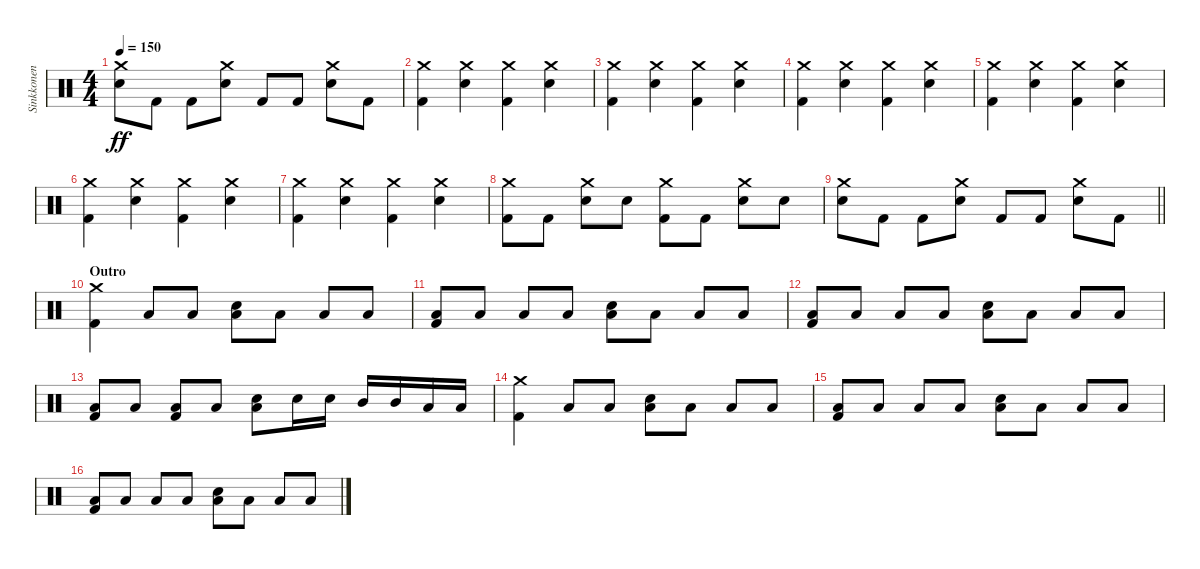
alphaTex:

\track ("Sinkkonen" "Sinkkonen") {instrument percussion}
\staff {score}
\articulation defaults
\ts (4 4)
\tempo 150
\clef neutral
\ks c
("Crash medium (hit)" "Snare (hit) 2").8{dy ff} "Kick (hit) 2".8 "Kick (hit) 2".8 ("Crash medium (hit)" "Snare (hit) 2").8 "Kick (hit) 2".8 "Kick (hit) 2".8 ("Crash medium (hit)" "Snare (hit) 2").8 "Kick (hit) 2".8 |
("Crash medium (hit)" "Kick (hit) 2").4 ("Crash medium (hit)" "Snare (hit) 2").4 ("Crash medium (hit)" "Kick (hit) 2").4 ("Crash medium (hit)" "Snare (hit) 2").4 |
("Crash medium (hit)" "Kick (hit) 2").4 ("Crash medium (hit)" "Snare (hit) 2").4 ("Crash medium (hit)" "Kick (hit) 2").4 ("Crash medium (hit)" "Snare (hit) 2").4 |
("Crash medium (hit)" "Kick (hit) 2").4 ("Crash medium (hit)" "Snare (hit) 2").4 ("Crash medium (hit)" "Kick (hit) 2").4 ("Crash medium (hit)" "Snare (hit) 2").4 |
("Crash medium (hit)" "Kick (hit) 2").4 ("Crash medium (hit)" "Snare (hit) 2").4 ("Crash medium (hit)" "Kick (hit) 2").4 ("Crash medium (hit)" "Snare (hit) 2").4 |
("Crash medium (hit)" "Kick (hit) 2").4 ("Crash medium (hit)" "Snare (hit) 2").4 ("Crash medium (hit)" "Kick (hit) 2").4 ("Crash medium (hit)" "Snare (hit) 2").4 |
("Crash medium (hit)" "Kick (hit) 2").4 ("Crash medium (hit)" "Snare (hit) 2").4 ("Crash medium (hit)" "Kick (hit) 2").4 ("Crash medium (hit)" "Snare (hit) 2").4 |
("Crash medium (hit)" "Kick (hit) 2").8 "Kick (hit) 2".8 ("Crash medium (hit)" "Snare (hit) 2").8 "Snare (hit) 2".8 ("Crash medium (hit)" "Kick (hit) 2").8 "Kick (hit) 2".8 ("Crash medium (hit)" "Snare (hit) 2").8 "Snare (hit) 2".8 |
\barLineRight lightlight
("Crash medium (hit)" "Snare (hit) 2").8 "Kick (hit) 2".8 "Kick (hit) 2".8 ("Crash medium (hit)" "Snare (hit) 2").8 "Kick (hit) 2".8 "Kick (hit) 2".8 ("Crash medium (hit)" "Snare (hit) 2").8 "Kick (hit) 2".8 |
\section ("" "Outro")
("Crash medium (hit)" "Kick (hit) 2").4 "Low Floor Tom (hit)".8 "Low Floor Tom (hit)".8 ("Snare (hit) 2" "Low Floor Tom (hit)").8 "Low Floor Tom (hit)".8 "Low Floor Tom (hit)".8 "Low Floor Tom (hit)".8 |
("Low Floor Tom (hit)" "Kick (hit) 2").8 "Low Floor Tom (hit)".8 "Low Floor Tom (hit)".8 "Low Floor Tom (hit)".8 ("Snare (hit) 2" "Low Floor Tom (hit)").8 "Low Floor Tom (hit)".8 "Low Floor Tom (hit)".8 "Low Floor Tom (hit)".8 |
("Low Floor Tom (hit)" "Kick (hit) 2").8 "Low Floor Tom (hit)".8 "Low Floor Tom (hit)".8 "Low Floor Tom (hit)".8 ("Snare (hit) 2" "Low Floor Tom (hit)").8 "Low Floor Tom (hit)".8 "Low Floor Tom (hit)".8 "Low Floor Tom (hit)".8 |
("Low Floor Tom (hit)" "Kick (hit) 2").8 "Low Floor Tom (hit)".8 ("Low Floor Tom (hit)" "Kick (hit) 2").8 "Low Floor Tom (hit)".8 ("Snare (hit) 2" "Low Floor Tom (hit)").8 "Snare (hit) 2".16 "Snare (hit) 2".16 "Mid Tom (hit)".16 "Mid Tom (hit)".16 "Low Tom (hit)".16 "Low Tom (hit)".16 |
("Crash medium (hit)" "Kick (hit) 2").4 "Low Floor Tom (hit)".8 "Low Floor Tom (hit)".8 ("Snare (hit) 2" "Low Floor Tom (hit)").8 "Low Floor Tom (hit)".8 "Low Floor Tom (hit)".8 "Low Floor Tom (hit)".8 |
("Low Floor Tom (hit)" "Kick (hit) 2").8 "Low Floor Tom (hit)".8 "Low Floor Tom (hit)".8 "Low Floor Tom (hit)".8 ("Snare (hit) 2" "Low Floor Tom (hit)").8 "Low Floor Tom (hit)".8 "Low Floor Tom (hit)".8 "Low Floor Tom (hit)".8 |
("Low Floor Tom (hit)" "Kick (hit) 2").8 "Low Floor Tom (hit)".8 "Low Floor Tom (hit)".8 "Low Floor Tom (hit)".8 ("Snare (hit) 2" "Low Floor Tom (hit)").8 "Low Floor Tom (hit)".8 "Low Floor Tom (hit)".8 "Low Floor Tom (hit)".8
